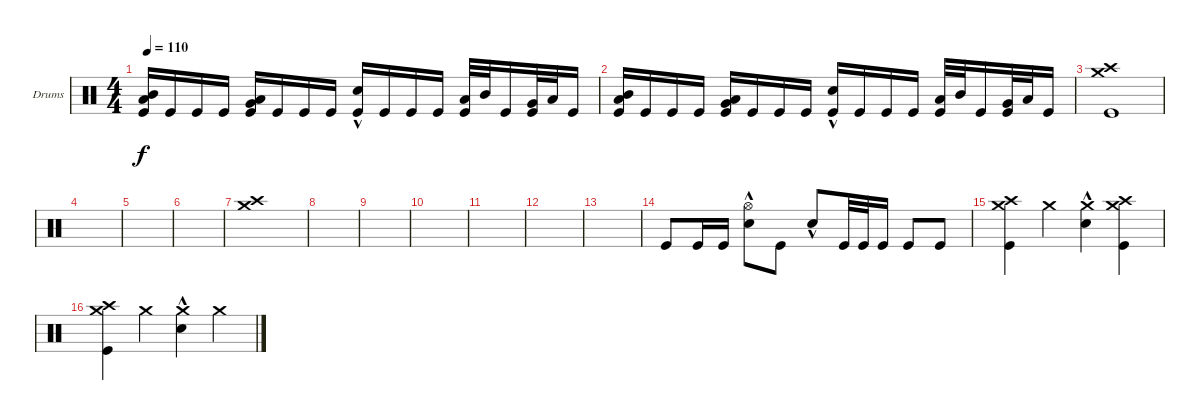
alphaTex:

\defaultSystemsLayout 4
\bracketExtendMode groupsimilarinstruments
\firstSystemTrackNameOrientation horizontal
\otherSystemsTrackNameOrientation horizontal
\track ("Drumkit" "Drums") {instrument percussion}
\staff {score}
\articulation defaults
\ts (4 4)
\tempo 110
\clef neutral
\scale
0.333333
\ks c
("Kick (hit)" "Mid Tom (hit)" "Low Tom (hit)").16{dy f} "Kick (hit)".16 "Kick (hit)".16 "Kick (hit)".16 ("Kick (hit)" "Very Low Tom (hit)" "Low Tom (hit)").16 "Kick (hit)".16 "Kick (hit)".16 "Kick (hit)".16 ("Kick (hit)" "Snare (hit) 2"{hac}).16 "Kick (hit)".16 "Kick (hit)".16 "Kick (hit)".16 ("Kick (hit)" "Low Tom (hit)").32 "Mid Tom (hit)".32 "Kick (hit)".16 ("Kick (hit)" "Very Low Tom (hit)").32 "Low Tom (hit)".32 "Kick (hit)".16 |
\scale
0.333333 ("Kick (hit)" "Mid Tom (hit)" "Low Tom (hit)").16 "Kick (hit)".16 "Kick (hit)".16 "Kick (hit)".16 ("Kick (hit)" "Very Low Tom (hit)" "Low Tom (hit)").16 "Kick (hit)".16 "Kick (hit)".16 "Kick (hit)".16 ("Kick (hit)" "Snare (hit) 2"{hac}).16 "Kick (hit)".16 "Kick (hit)".16 "Kick (hit)".16 ("Kick (hit)" "Low Tom (hit)").32 "Mid Tom (hit)".32 "Kick (hit)".16 ("Kick (hit)" "Very Low Tom (hit)").32 "Low Tom (hit)".32 "Kick (hit)".16 |
\scale
0.333333 ("Kick (hit)" "Crash medium (hit)" "Crash high (hit)").1 |
\scale
0.333333 |
\scale
0.333333 |
\scale
0.333333 |
\scale
0.333333 ("Crash medium (hit)" "Crash high (hit)").1 |
\scale
0.333333 |
\scale
0.333333 |
\scale
0.333333 |
\scale
0.333333 |
\scale
0.333333 |
\scale
0.333333 |
\scale
0.333333 "Kick (hit)".8 "Kick (hit)".16 "Kick (hit)".16 ("Snare (hit) 2"{hac} "Hi-Hat (open)").8 "Kick (hit)".8 "Snare (hit) 2"{hac}.8 "Kick (hit)".32 "Kick (hit)".32 "Kick (hit)".16 "Kick (hit)".8 "Kick (hit)".8 |
\scale
0.333333 ("Crash medium (hit)" "Crash high (hit)" "Kick (hit)").4 "Crash medium (hit)".4 ("Crash medium (hit)" "Snare (hit) 2"{hac}).4 ("Crash medium (hit)" "Kick (hit)" "Crash high (hit)").4 |
\scale
0.333333 ("Crash medium (hit)" "Crash high (hit)" "Kick (hit)").4 "Crash medium (hit)".4 ("Crash medium (hit)" "Snare (hit) 2"{hac}).4 "Crash medium (hit)".4
